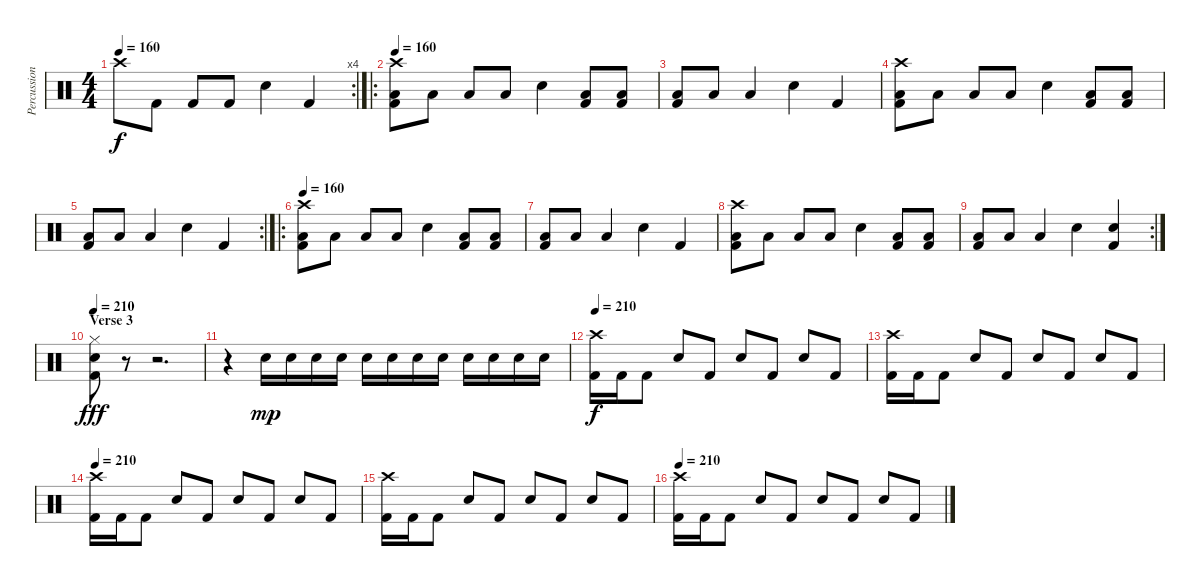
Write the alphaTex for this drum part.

\track ("Percussion" "Percussion") {instrument percussion}
\staff {score}
\articulation defaults
\rc 4
\ts (4 4)
\tempo 160
\clef neutral
\ks c "Crash high (hit)".8{dy f} "Kick (hit) 2".8 "Kick (hit) 2".8 "Kick (hit) 2".8 "Electric Snare (hit)".4 "Kick (hit) 2".4
|
\ro
\tempo 160
("Crash high (hit)" "Low Floor Tom (hit)" "Kick (hit) 2").8 "Low Floor Tom (hit)".8 "Low Floor Tom (hit)".8 "Low Floor Tom (hit)".8 "Electric Snare (hit)".4 ("Low Floor Tom (hit)" "Kick (hit) 2").8 ("Low Floor Tom (hit)" "Kick (hit) 2").8 |
("Low Floor Tom (hit)" "Kick (hit) 2").8 "Low Floor Tom (hit)".8 "Low Floor Tom (hit)".4 "Electric Snare (hit)".4 "Kick (hit) 2".4 |
("Crash high (hit)" "Low Floor Tom (hit)" "Kick (hit) 2").8 "Low Floor Tom (hit)".8 "Low Floor Tom (hit)".8 "Low Floor Tom (hit)".8 "Electric Snare (hit)".4 ("Low Floor Tom (hit)" "Kick (hit) 2").8 ("Low Floor Tom (hit)" "Kick (hit) 2").8 |
\rc 2
("Low Floor Tom (hit)" "Kick (hit) 2").8 "Low Floor Tom (hit)".8 "Low Floor Tom (hit)".4 "Electric Snare (hit)".4 "Kick (hit) 2".4 |
\ro
\tempo 160
("Crash high (hit)" "Low Floor Tom (hit)" "Kick (hit) 2").8 "Low Floor Tom (hit)".8 "Low Floor Tom (hit)".8 "Low Floor Tom (hit)".8 "Electric Snare (hit)".4 ("Low Floor Tom (hit)" "Kick (hit) 2").8 ("Low Floor Tom (hit)" "Kick (hit) 2").8 |
("Low Floor Tom (hit)" "Kick (hit) 2").8 "Low Floor Tom (hit)".8 "Low Floor Tom (hit)".4 "Electric Snare (hit)".4 "Kick (hit) 2".4 |
("Crash high (hit)" "Low Floor Tom (hit)" "Kick (hit) 2").8 "Low Floor Tom (hit)".8 "Low Floor Tom (hit)".8 "Low Floor Tom (hit)".8 "Electric Snare (hit)".4 ("Low Floor Tom (hit)" "Kick (hit) 2").8 ("Low Floor Tom (hit)" "Kick (hit) 2").8 |
\rc 2
("Low Floor Tom (hit)" "Kick (hit) 2").8 "Low Floor Tom (hit)".8 "Low Floor Tom (hit)".4 "Electric Snare (hit)".4 ("Electric Snare (hit)" "Kick (hit) 2").4 |
\section ("" "Verse 3")
\tempo 210
("Hi-Hat (closed)" "Electric Snare (hit)" "Kick (hit) 2").8{dy fff} r.8 r.2{d} |
r.4 "Electric Snare (hit)".16{dy mp} "Electric Snare (hit)".16 "Electric Snare (hit)".16 "Electric Snare (hit)".16 "Electric Snare (hit)".16 "Electric Snare (hit)".16 "Electric Snare (hit)".16 "Electric Snare (hit)".16 "Electric Snare (hit)".16 "Electric Snare (hit)".16 "Electric Snare (hit)".16 "Electric Snare (hit)".16 |
\tempo 210
("Crash high (hit)" "Kick (hit) 2").16{dy f} "Kick (hit) 2".16 "Kick (hit) 2".8 "Electric Snare (hit)".8 "Kick (hit) 2".8 "Electric Snare (hit)".8 "Kick (hit) 2".8 "Electric Snare (hit)".8 "Kick (hit) 2".8 |
("Crash high (hit)" "Kick (hit) 2").16 "Kick (hit) 2".16 "Kick (hit) 2".8 "Electric Snare (hit)".8 "Kick (hit) 2".8 "Electric Snare (hit)".8 "Kick (hit) 2".8 "Electric Snare (hit)".8 "Kick (hit) 2".8 |
\tempo 210
("Crash high (hit)" "Kick (hit) 2").16 "Kick (hit) 2".16 "Kick (hit) 2".8 "Electric Snare (hit)".8 "Kick (hit) 2".8 "Electric Snare (hit)".8 "Kick (hit) 2".8 "Electric Snare (hit)".8 "Kick (hit) 2".8 |
("Crash high (hit)" "Kick (hit) 2").16 "Kick (hit) 2".16 "Kick (hit) 2".8 "Electric Snare (hit)".8 "Kick (hit) 2".8 "Electric Snare (hit)".8 "Kick (hit) 2".8 "Electric Snare (hit)".8 "Kick (hit) 2".8 |
\tempo 210
("Crash high (hit)" "Kick (hit) 2").16 "Kick (hit) 2".16 "Kick (hit) 2".8 "Electric Snare (hit)".8 "Kick (hit) 2".8 "Electric Snare (hit)".8 "Kick (hit) 2".8 "Electric Snare (hit)".8 "Kick (hit) 2".8
